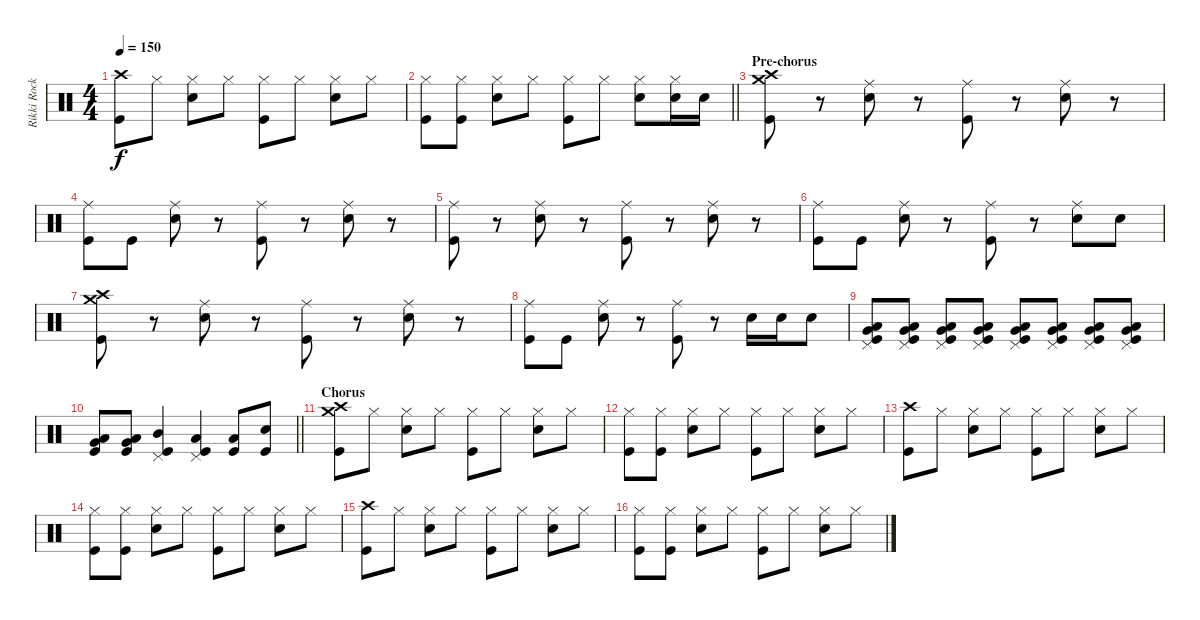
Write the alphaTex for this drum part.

\track ("Rikki Rocket" "Rikki Rock") {instrument percussion}
\staff {score}
\articulation defaults
\ts (4 4)
\tempo 150
\clef neutral
\ks c
("Crash high (hit)" "Kick (hit)").8{dy f} "Hi-Hat (closed)".8 ("Hi-Hat (closed)" "Electric Snare (hit)").8 "Hi-Hat (closed)".8 ("Hi-Hat (closed)" "Kick (hit)").8 "Hi-Hat (closed)".8 ("Hi-Hat (closed)" "Electric Snare (hit)").8 "Hi-Hat (closed)".8 |
\barLineRight lightlight
("Hi-Hat (closed)" "Kick (hit)").8 ("Hi-Hat (closed)" "Kick (hit)").8 ("Hi-Hat (closed)" "Electric Snare (hit)").8 "Hi-Hat (closed)".8 ("Hi-Hat (closed)" "Kick (hit)").8 "Hi-Hat (closed)".8 ("Hi-Hat (closed)" "Electric Snare (hit)").8 ("Hi-Hat (closed)" "Electric Snare (hit)").16 "Electric Snare (hit)".16 |
\section ("" "Pre-chorus")
("Crash medium (hit)" "Crash high (hit)" "Kick (hit)").8 r.8 ("Ride (middle)" "Electric Snare (hit)").8 r.8 ("Ride (middle)" "Kick (hit)").8 r.8 ("Ride (middle)" "Electric Snare (hit)").8 r.8 |
("Ride (middle)" "Kick (hit)").8 "Kick (hit)".8 ("Ride (middle)" "Electric Snare (hit)").8 r.8 ("Ride (middle)" "Kick (hit)").8 r.8 ("Ride (middle)" "Electric Snare (hit)").8 r.8 |
("Ride (middle)" "Kick (hit)").8 r.8 ("Ride (middle)" "Electric Snare (hit)").8 r.8 ("Ride (middle)" "Kick (hit)").8 r.8 ("Ride (middle)" "Electric Snare (hit)").8 r.8 |
("Ride (middle)" "Kick (hit)").8 "Kick (hit)".8 ("Ride (middle)" "Electric Snare (hit)").8 r.8 ("Ride (middle)" "Kick (hit)").8 r.8 ("Ride (middle)" "Electric Snare (hit)").8 "Electric Snare (hit)".8 |
("Crash medium (hit)" "Crash high (hit)" "Kick (hit)").8 r.8 ("Ride (middle)" "Electric Snare (hit)").8 r.8 ("Ride (middle)" "Kick (hit)").8 r.8 ("Ride (middle)" "Electric Snare (hit)").8 r.8 |
("Ride (middle)" "Kick (hit)").8 "Kick (hit)".8 ("Ride (middle)" "Electric Snare (hit)").8 r.8 ("Ride (middle)" "Kick (hit)").8 r.8 "Electric Snare (hit)".16 "Electric Snare (hit)".16 "Electric Snare (hit)".8 |
("Pedal Hi-Hat (hit)" "Low Tom (hit)" "Very Low Tom (hit)" "Kick (hit)").8 ("Pedal Hi-Hat (hit)" "Low Tom (hit)" "Very Low Tom (hit)" "Kick (hit)").8 ("Pedal Hi-Hat (hit)" "Low Tom (hit)" "Very Low Tom (hit)" "Kick (hit)").8 ("Pedal Hi-Hat (hit)" "Low Tom (hit)" "Very Low Tom (hit)" "Kick (hit)").8 ("Pedal Hi-Hat (hit)" "Low Tom (hit)" "Very Low Tom (hit)" "Kick (hit)").8 ("Pedal Hi-Hat (hit)" "Low Tom (hit)" "Very Low Tom (hit)" "Kick (hit)").8 ("Pedal Hi-Hat (hit)" "Low Tom (hit)" "Very Low Tom (hit)" "Kick (hit)").8 ("Pedal Hi-Hat (hit)" "Low Tom (hit)" "Very Low Tom (hit)" "Kick (hit)").8 |
\barLineRight lightlight
("Low Tom (hit)" "Very Low Tom (hit)" "Kick (hit)").8 ("Low Tom (hit)" "Very Low Tom (hit)" "Kick (hit)").8 ("Pedal Hi-Hat (hit)" "Mid Tom (hit)" "Kick (hit)").4 ("Pedal Hi-Hat (hit)" "Low Tom (hit)" "Kick (hit)").4 ("Low Tom (hit)" "Kick (hit)").8 ("Electric Snare (hit)" "Kick (hit)").8 |
\section ("" "Chorus")
("Crash medium (hit)" "Crash high (hit)" "Kick (hit)").8 "Hi-Hat (closed)".8 ("Hi-Hat (closed)" "Electric Snare (hit)").8 "Hi-Hat (closed)".8 ("Hi-Hat (closed)" "Kick (hit)").8 "Hi-Hat (closed)".8 ("Hi-Hat (closed)" "Electric Snare (hit)").8 "Hi-Hat (closed)".8 |
("Hi-Hat (closed)" "Kick (hit)").8 ("Hi-Hat (closed)" "Kick (hit)").8 ("Hi-Hat (closed)" "Electric Snare (hit)").8 "Hi-Hat (closed)".8 ("Hi-Hat (closed)" "Kick (hit)").8 "Hi-Hat (closed)".8 ("Hi-Hat (closed)" "Electric Snare (hit)").8 "Hi-Hat (closed)".8 |
("Crash high (hit)" "Kick (hit)").8 "Hi-Hat (closed)".8 ("Hi-Hat (closed)" "Electric Snare (hit)").8 "Hi-Hat (closed)".8 ("Hi-Hat (closed)" "Kick (hit)").8 "Hi-Hat (closed)".8 ("Hi-Hat (closed)" "Electric Snare (hit)").8 "Hi-Hat (closed)".8 |
("Hi-Hat (closed)" "Kick (hit)").8 ("Hi-Hat (closed)" "Kick (hit)").8 ("Hi-Hat (closed)" "Electric Snare (hit)").8 "Hi-Hat (closed)".8 ("Hi-Hat (closed)" "Kick (hit)").8 "Hi-Hat (closed)".8 ("Hi-Hat (closed)" "Electric Snare (hit)").8 "Hi-Hat (closed)".8 |
("Crash high (hit)" "Kick (hit)").8 "Hi-Hat (closed)".8 ("Hi-Hat (closed)" "Electric Snare (hit)").8 "Hi-Hat (closed)".8 ("Hi-Hat (closed)" "Kick (hit)").8 "Hi-Hat (closed)".8 ("Hi-Hat (closed)" "Electric Snare (hit)").8 "Hi-Hat (closed)".8 |
("Hi-Hat (closed)" "Kick (hit)").8 ("Hi-Hat (closed)" "Kick (hit)").8 ("Hi-Hat (closed)" "Electric Snare (hit)").8 "Hi-Hat (closed)".8 ("Hi-Hat (closed)" "Kick (hit)").8 "Hi-Hat (closed)".8 ("Hi-Hat (closed)" "Electric Snare (hit)").8 "Hi-Hat (closed)".8
